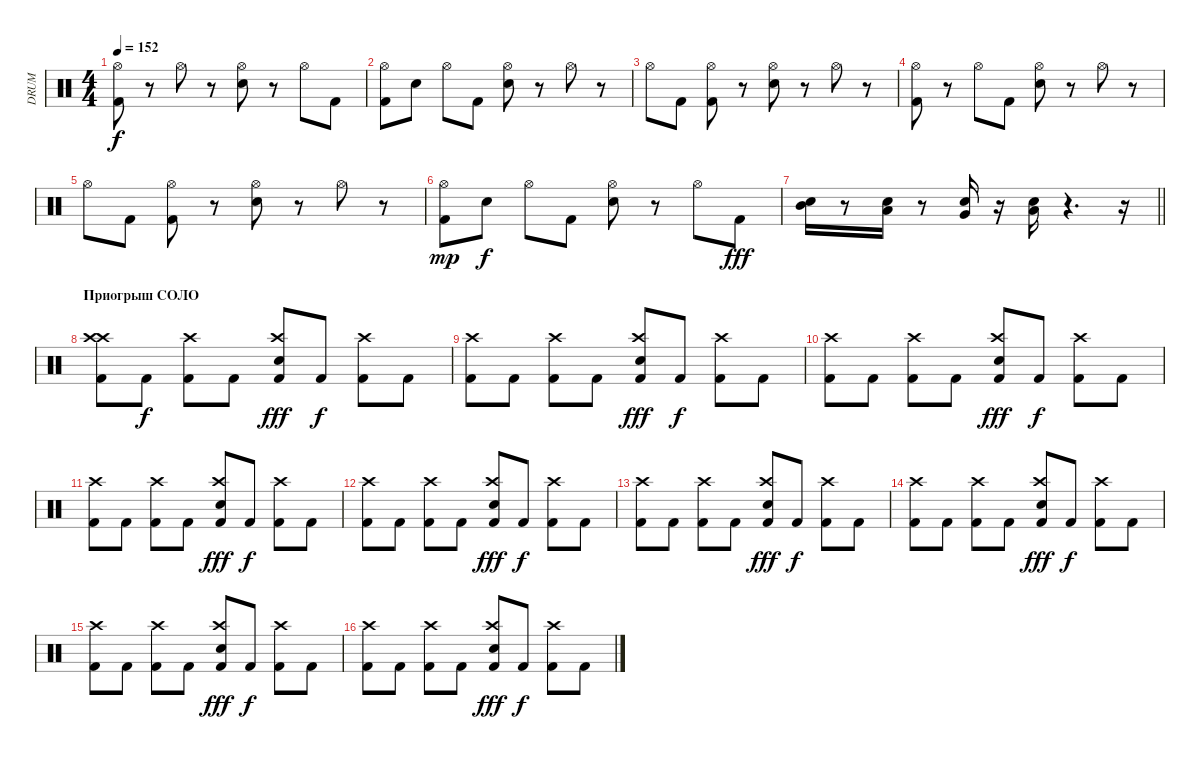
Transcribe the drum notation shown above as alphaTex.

\track ("DRUM" "DRUM") {instrument percussion}
\staff {score}
\articulation defaults
\ts (4 4)
\tempo 152
\clef neutral
\ks c
("Kick (hit) 2" "Hi-Hat (open)").8{dy f} r.8 "Hi-Hat (open)".8 r.8 ("Hi-Hat (open)" "Snare (hit) 2").8 r.8 "Hi-Hat (open)".8 "Kick (hit) 2".8 |
("Kick (hit) 2" "Hi-Hat (open)").8 "Snare (hit) 2".8 "Hi-Hat (open)".8 "Kick (hit) 2".8 ("Hi-Hat (open)" "Snare (hit) 2").8 r.8 "Hi-Hat (open)".8 r.8 |
"Hi-Hat (open)".8 "Kick (hit) 2".8 ("Hi-Hat (open)" "Kick (hit) 2").8 r.8 ("Hi-Hat (open)" "Snare (hit) 2").8 r.8 "Hi-Hat (open)".8 r.8 |
("Kick (hit) 2" "Hi-Hat (open)").8 r.8 "Hi-Hat (open)".8 "Kick (hit) 2".8 ("Hi-Hat (open)" "Snare (hit) 2").8 r.8 "Hi-Hat (open)".8 r.8 |
"Hi-Hat (open)".8 "Kick (hit) 2".8 ("Hi-Hat (open)" "Kick (hit) 2").8 r.8 ("Hi-Hat (open)" "Snare (hit) 2").8 r.8 "Hi-Hat (open)".8 r.8 |
("Kick (hit) 2" "Hi-Hat (open)").8{dy mp} "Snare (hit) 2".8{dy f} "Hi-Hat (open)".8 "Kick (hit) 2".8 ("Hi-Hat (open)" "Snare (hit) 2").8 r.8 "Hi-Hat (open)".8 "Kick (hit) 2".8{dy fff} |
\barLineRight lightlight
("Snare (hit) 2" "Mid Tom (hit)").16 r.8 ("Snare (hit) 2" "Low Tom (hit)").16 r.8 ("Snare (hit) 2" "Very Low Tom (hit)").16 r.16 ("Snare (hit) 2" "Low Floor Tom (hit)").16 r.4{d} r.16 |
\section ("" "Приогрыш СОЛО")
("Crash high (hit)" "Crash high (hit)" "Kick (hit) 2").8 "Kick (hit) 2".8{dy f} ("Crash high (hit)" "Kick (hit) 2").8 "Kick (hit) 2".8 ("Electric Snare (hit)" "Crash high (hit)" "Kick (hit) 2").8{dy fff} "Kick (hit) 2".8{dy f} ("Crash high (hit)" "Kick (hit) 2").8 "Kick (hit) 2".8 |
("Crash high (hit)" "Kick (hit) 2").8 "Kick (hit) 2".8 ("Crash high (hit)" "Kick (hit) 2").8 "Kick (hit) 2".8 ("Electric Snare (hit)" "Crash high (hit)" "Kick (hit) 2").8{dy fff} "Kick (hit) 2".8{dy f} ("Crash high (hit)" "Kick (hit) 2").8 "Kick (hit) 2".8 |
("Crash high (hit)" "Kick (hit) 2").8 "Kick (hit) 2".8 ("Crash high (hit)" "Kick (hit) 2").8 "Kick (hit) 2".8 ("Electric Snare (hit)" "Crash high (hit)" "Kick (hit) 2").8{dy fff} "Kick (hit) 2".8{dy f} ("Crash high (hit)" "Kick (hit) 2").8 "Kick (hit) 2".8 |
("Crash high (hit)" "Kick (hit) 2").8 "Kick (hit) 2".8 ("Crash high (hit)" "Kick (hit) 2").8 "Kick (hit) 2".8 ("Electric Snare (hit)" "Crash high (hit)" "Kick (hit) 2").8{dy fff} "Kick (hit) 2".8{dy f} ("Crash high (hit)" "Kick (hit) 2").8 "Kick (hit) 2".8 |
("Crash high (hit)" "Kick (hit) 2").8 "Kick (hit) 2".8 ("Crash high (hit)" "Kick (hit) 2").8 "Kick (hit) 2".8 ("Electric Snare (hit)" "Crash high (hit)" "Kick (hit) 2").8{dy fff} "Kick (hit) 2".8{dy f} ("Crash high (hit)" "Kick (hit) 2").8 "Kick (hit) 2".8 |
("Crash high (hit)" "Kick (hit) 2").8 "Kick (hit) 2".8 ("Crash high (hit)" "Kick (hit) 2").8 "Kick (hit) 2".8 ("Electric Snare (hit)" "Crash high (hit)" "Kick (hit) 2").8{dy fff} "Kick (hit) 2".8{dy f} ("Crash high (hit)" "Kick (hit) 2").8 "Kick (hit) 2".8 |
("Crash high (hit)" "Kick (hit) 2").8 "Kick (hit) 2".8 ("Crash high (hit)" "Kick (hit) 2").8 "Kick (hit) 2".8 ("Electric Snare (hit)" "Crash high (hit)" "Kick (hit) 2").8{dy fff} "Kick (hit) 2".8{dy f} ("Crash high (hit)" "Kick (hit) 2").8 "Kick (hit) 2".8 |
("Crash high (hit)" "Kick (hit) 2").8 "Kick (hit) 2".8 ("Crash high (hit)" "Kick (hit) 2").8 "Kick (hit) 2".8 ("Electric Snare (hit)" "Crash high (hit)" "Kick (hit) 2").8{dy fff} "Kick (hit) 2".8{dy f} ("Crash high (hit)" "Kick (hit) 2").8 "Kick (hit) 2".8 |
("Crash high (hit)" "Kick (hit) 2").8 "Kick (hit) 2".8 ("Crash high (hit)" "Kick (hit) 2").8 "Kick (hit) 2".8 ("Electric Snare (hit)" "Crash high (hit)" "Kick (hit) 2").8{dy fff} "Kick (hit) 2".8{dy f} ("Crash high (hit)" "Kick (hit) 2").8 "Kick (hit) 2".8
